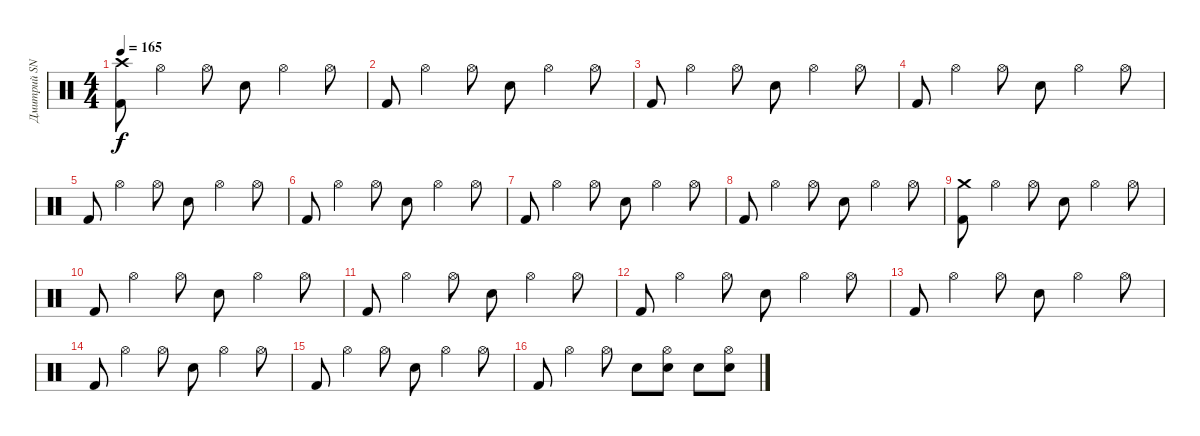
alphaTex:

\track ("Дмитрий SNAKE Хакимов" "Дмитрий SN") {instrument percussion}
\staff {score}
\articulation defaults
\ts (4 4)
\tempo 165
\clef neutral
\ks c
("Crash high (hit)" "Kick (hit) 2").8{dy f} "Hi-Hat (open)".4 "Hi-Hat (open)".8 "Electric Snare (hit)".8 "Hi-Hat (open)".4 "Hi-Hat (open)".8 |
"Kick (hit) 2".8 "Hi-Hat (open)".4 "Hi-Hat (open)".8 "Electric Snare (hit)".8 "Hi-Hat (open)".4 "Hi-Hat (open)".8 |
"Kick (hit) 2".8 "Hi-Hat (open)".4 "Hi-Hat (open)".8 "Electric Snare (hit)".8 "Hi-Hat (open)".4 "Hi-Hat (open)".8 |
"Kick (hit) 2".8 "Hi-Hat (open)".4 "Hi-Hat (open)".8 "Electric Snare (hit)".8 "Hi-Hat (open)".4 "Hi-Hat (open)".8 |
"Kick (hit) 2".8 "Hi-Hat (open)".4 "Hi-Hat (open)".8 "Electric Snare (hit)".8 "Hi-Hat (open)".4 "Hi-Hat (open)".8 |
"Kick (hit) 2".8 "Hi-Hat (open)".4 "Hi-Hat (open)".8 "Electric Snare (hit)".8 "Hi-Hat (open)".4 "Hi-Hat (open)".8 |
"Kick (hit) 2".8 "Hi-Hat (open)".4 "Hi-Hat (open)".8 "Electric Snare (hit)".8 "Hi-Hat (open)".4 "Hi-Hat (open)".8 |
"Kick (hit) 2".8 "Hi-Hat (open)".4 "Hi-Hat (open)".8 "Electric Snare (hit)".8 "Hi-Hat (open)".4 "Hi-Hat (open)".8 |
("Crash medium (hit)" "Kick (hit) 2").8 "Hi-Hat (open)".4 "Hi-Hat (open)".8 "Electric Snare (hit)".8 "Hi-Hat (open)".4 "Hi-Hat (open)".8 |
"Kick (hit) 2".8 "Hi-Hat (open)".4 "Hi-Hat (open)".8 "Electric Snare (hit)".8 "Hi-Hat (open)".4 "Hi-Hat (open)".8 |
"Kick (hit) 2".8 "Hi-Hat (open)".4 "Hi-Hat (open)".8 "Electric Snare (hit)".8 "Hi-Hat (open)".4 "Hi-Hat (open)".8 |
"Kick (hit) 2".8 "Hi-Hat (open)".4 "Hi-Hat (open)".8 "Electric Snare (hit)".8 "Hi-Hat (open)".4 "Hi-Hat (open)".8 |
"Kick (hit) 2".8 "Hi-Hat (open)".4 "Hi-Hat (open)".8 "Electric Snare (hit)".8 "Hi-Hat (open)".4 "Hi-Hat (open)".8 |
"Kick (hit) 2".8 "Hi-Hat (open)".4 "Hi-Hat (open)".8 "Electric Snare (hit)".8 "Hi-Hat (open)".4 "Hi-Hat (open)".8 |
"Kick (hit) 2".8 "Hi-Hat (open)".4 "Hi-Hat (open)".8 "Electric Snare (hit)".8 "Hi-Hat (open)".4 "Hi-Hat (open)".8 |
"Kick (hit) 2".8 "Hi-Hat (open)".4 "Hi-Hat (open)".8 "Electric Snare (hit)".8 ("Hi-Hat (open)" "Electric Snare (hit)").8 "Electric Snare (hit)".8 ("Hi-Hat (open)" "Electric Snare (hit)").8
